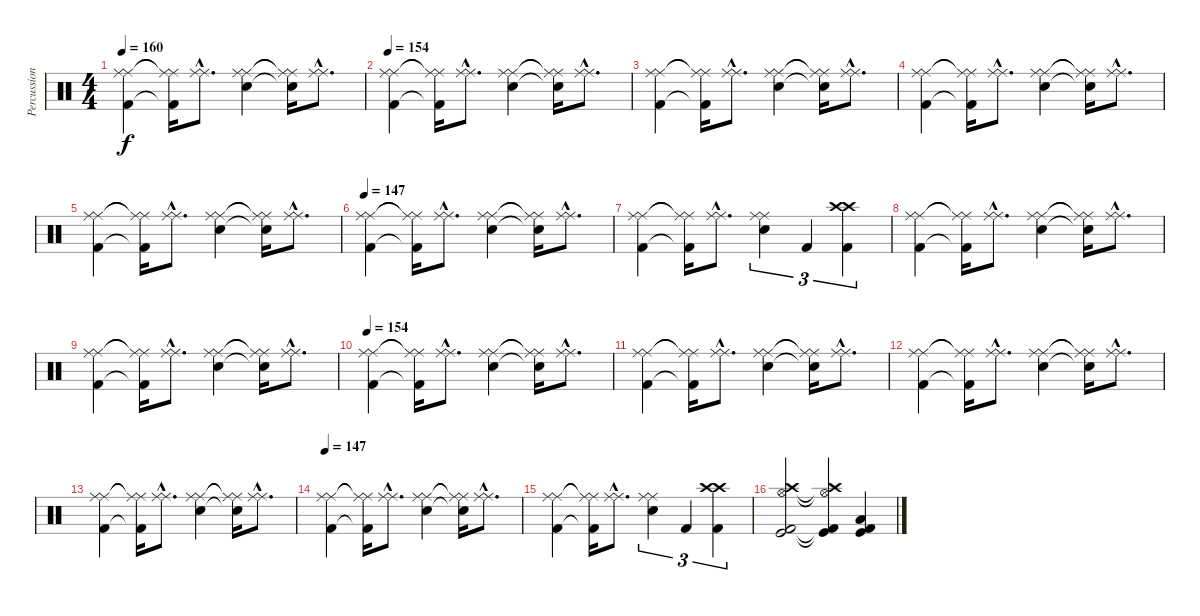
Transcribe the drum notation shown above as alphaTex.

\track ("Percussioni" "Percussion") {instrument percussion}
\staff {score}
\articulation defaults
\ts (4 4)
\tempo 160
\clef neutral
\ks c
("Ride (middle)" "Ride (middle)" "Kick (hit) 2").4{dy f} ("Ride (middle)"{t} "Ride (middle)"{t} "Kick (hit) 2"{t}).16 ("Ride (middle)"{hac} "Ride (middle)"{hac}).8{d} ("Ride (middle)" "Ride (middle)" "Electric Snare (hit)").4 ("Ride (middle)"{t} "Ride (middle)"{t} "Electric Snare (hit)"{t}).16 ("Ride (middle)"{hac} "Ride (middle)"{hac}).8{d} |
\tempo 154
("Ride (middle)" "Ride (middle)" "Kick (hit) 2").4 ("Ride (middle)"{t} "Ride (middle)"{t} "Kick (hit) 2"{t}).16 ("Ride (middle)"{hac} "Ride (middle)"{hac}).8{d} ("Ride (middle)" "Ride (middle)" "Electric Snare (hit)").4 ("Ride (middle)"{t} "Ride (middle)"{t} "Electric Snare (hit)"{t}).16 ("Ride (middle)"{hac} "Ride (middle)"{hac}).8{d} |
("Ride (middle)" "Ride (middle)" "Kick (hit) 2").4 ("Ride (middle)"{t} "Ride (middle)"{t} "Kick (hit) 2"{t}).16 ("Ride (middle)"{hac} "Ride (middle)"{hac}).8{d} ("Ride (middle)" "Ride (middle)" "Electric Snare (hit)").4 ("Ride (middle)"{t} "Ride (middle)"{t} "Electric Snare (hit)"{t}).16 ("Ride (middle)"{hac} "Ride (middle)"{hac}).8{d} |
("Ride (middle)" "Ride (middle)" "Kick (hit) 2").4 ("Ride (middle)"{t} "Ride (middle)"{t} "Kick (hit) 2"{t}).16 ("Ride (middle)"{hac} "Ride (middle)"{hac}).8{d} ("Ride (middle)" "Ride (middle)" "Electric Snare (hit)").4 ("Ride (middle)"{t} "Ride (middle)"{t} "Electric Snare (hit)"{t}).16 ("Ride (middle)"{hac} "Ride (middle)"{hac}).8{d} |
("Ride (middle)" "Ride (middle)" "Kick (hit) 2").4 ("Ride (middle)"{t} "Ride (middle)"{t} "Kick (hit) 2"{t}).16 ("Ride (middle)"{hac} "Ride (middle)"{hac}).8{d} ("Ride (middle)" "Ride (middle)" "Electric Snare (hit)").4 ("Ride (middle)"{t} "Ride (middle)"{t} "Electric Snare (hit)"{t}).16 ("Ride (middle)"{hac} "Ride (middle)"{hac}).8{d} |
\tempo 147
("Ride (middle)" "Ride (middle)" "Kick (hit) 2").4 ("Ride (middle)"{t} "Ride (middle)"{t} "Kick (hit) 2"{t}).16 ("Ride (middle)"{hac} "Ride (middle)"{hac}).8{d} ("Ride (middle)" "Ride (middle)" "Electric Snare (hit)").4 ("Ride (middle)"{t} "Ride (middle)"{t} "Electric Snare (hit)"{t}).16 ("Ride (middle)"{hac} "Ride (middle)"{hac}).8{d} |
("Ride (middle)" "Ride (middle)" "Kick (hit) 2").4 ("Ride (middle)"{t} "Ride (middle)"{t} "Kick (hit) 2"{t}).16 ("Ride (middle)"{hac} "Ride (middle)"{hac}).8{d} ("Ride (middle)" "Ride (middle)" "Electric Snare (hit)").4{tu (3 2)} "Kick (hit) 2".4{tu (3 2)} ("Crash high (hit)" "Crash high (hit)" "Kick (hit) 2").4{tu (3 2)} |
("Ride (middle)" "Ride (middle)" "Kick (hit) 2").4 ("Ride (middle)"{t} "Ride (middle)"{t} "Kick (hit) 2"{t}).16 ("Ride (middle)"{hac} "Ride (middle)"{hac}).8{d} ("Ride (middle)" "Ride (middle)" "Electric Snare (hit)").4 ("Ride (middle)"{t} "Ride (middle)"{t} "Electric Snare (hit)"{t}).16 ("Ride (middle)"{hac} "Ride (middle)"{hac}).8{d} |
("Ride (middle)" "Ride (middle)" "Kick (hit) 2").4 ("Ride (middle)"{t} "Ride (middle)"{t} "Kick (hit) 2"{t}).16 ("Ride (middle)"{hac} "Ride (middle)"{hac}).8{d} ("Ride (middle)" "Ride (middle)" "Electric Snare (hit)").4 ("Ride (middle)"{t} "Ride (middle)"{t} "Electric Snare (hit)"{t}).16 ("Ride (middle)"{hac} "Ride (middle)"{hac}).8{d} |
\tempo 154
("Ride (middle)" "Ride (middle)" "Kick (hit) 2").4 ("Ride (middle)"{t} "Ride (middle)"{t} "Kick (hit) 2"{t}).16 ("Ride (middle)"{hac} "Ride (middle)"{hac}).8{d} ("Ride (middle)" "Ride (middle)" "Electric Snare (hit)").4 ("Ride (middle)"{t} "Ride (middle)"{t} "Electric Snare (hit)"{t}).16 ("Ride (middle)"{hac} "Ride (middle)"{hac}).8{d} |
("Ride (middle)" "Ride (middle)" "Kick (hit) 2").4 ("Ride (middle)"{t} "Ride (middle)"{t} "Kick (hit) 2"{t}).16 ("Ride (middle)"{hac} "Ride (middle)"{hac}).8{d} ("Ride (middle)" "Ride (middle)" "Electric Snare (hit)").4 ("Ride (middle)"{t} "Ride (middle)"{t} "Electric Snare (hit)"{t}).16 ("Ride (middle)"{hac} "Ride (middle)"{hac}).8{d} |
("Ride (middle)" "Ride (middle)" "Kick (hit) 2").4 ("Ride (middle)"{t} "Ride (middle)"{t} "Kick (hit) 2"{t}).16 ("Ride (middle)"{hac} "Ride (middle)"{hac}).8{d} ("Ride (middle)" "Ride (middle)" "Electric Snare (hit)").4 ("Ride (middle)"{t} "Ride (middle)"{t} "Electric Snare (hit)"{t}).16 ("Ride (middle)"{hac} "Ride (middle)"{hac}).8{d} |
("Ride (middle)" "Ride (middle)" "Kick (hit) 2").4 ("Ride (middle)"{t} "Ride (middle)"{t} "Kick (hit) 2"{t}).16 ("Ride (middle)"{hac} "Ride (middle)"{hac}).8{d} ("Ride (middle)" "Ride (middle)" "Electric Snare (hit)").4 ("Ride (middle)"{t} "Ride (middle)"{t} "Electric Snare (hit)"{t}).16 ("Ride (middle)"{hac} "Ride (middle)"{hac}).8{d} |
\tempo 147
("Ride (middle)" "Ride (middle)" "Kick (hit) 2").4 ("Ride (middle)"{t} "Ride (middle)"{t} "Kick (hit) 2"{t}).16 ("Ride (middle)"{hac} "Ride (middle)"{hac}).8{d} ("Ride (middle)" "Ride (middle)" "Electric Snare (hit)").4 ("Ride (middle)"{t} "Ride (middle)"{t} "Electric Snare (hit)"{t}).16 ("Ride (middle)"{hac} "Ride (middle)"{hac}).8{d} |
("Ride (middle)" "Ride (middle)" "Kick (hit) 2").4 ("Ride (middle)"{t} "Ride (middle)"{t} "Kick (hit) 2"{t}).16 ("Ride (middle)"{hac} "Ride (middle)"{hac}).8{d} ("Ride (middle)" "Ride (middle)" "Electric Snare (hit)").4{tu (3 2)} "Kick (hit) 2".4{tu (3 2)} ("Crash high (hit)" "Crash high (hit)" "Kick (hit) 2").4{tu (3 2)} |
("Hi-Hat (open)" "Crash high (hit)" "Kick (hit)" "Kick (hit) 2").2 ("Hi-Hat (open)"{t} "Crash high (hit)"{t} "Kick (hit)"{t} "Kick (hit) 2"{t}).4 ("Low Floor Tom (hit)" "Kick (hit)" "Kick (hit) 2").4
